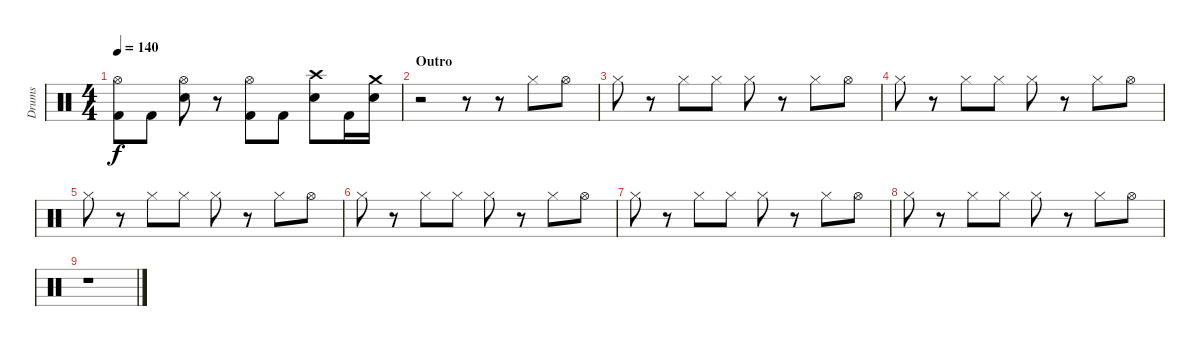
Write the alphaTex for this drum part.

\track ("Drums" "Drums") {instrument percussion}
\staff {score}
\articulation defaults
\ts (4 4)
\tempo 140
\clef neutral
\ks c
("Hi-Hat (open)" "Kick (hit) 2").8{dy f} "Kick (hit) 2".8 ("Hi-Hat (open)" "Electric Snare (hit)").8 r.8 ("Hi-Hat (open)" "Kick (hit) 2").8 "Kick (hit) 2".8 ("Crash high (hit)" "Electric Snare (hit)").8 "Kick (hit) 2".16 ("Crash medium (hit)" "Electric Snare (hit)").16 |
\section ("" "Outro")
r.2 r.8 r.8 "Hi-Hat (closed)".8 "Hi-Hat (open)".8 |
"Hi-Hat (closed)".8 r.8 "Hi-Hat (closed)".8 "Hi-Hat (closed)".8 "Hi-Hat (closed)".8 r.8 "Hi-Hat (closed)".8 "Hi-Hat (open)".8 |
"Hi-Hat (closed)".8 r.8 "Hi-Hat (closed)".8 "Hi-Hat (closed)".8 "Hi-Hat (closed)".8 r.8 "Hi-Hat (closed)".8 "Hi-Hat (open)".8 |
"Hi-Hat (closed)".8 r.8 "Hi-Hat (closed)".8 "Hi-Hat (closed)".8 "Hi-Hat (closed)".8 r.8 "Hi-Hat (closed)".8 "Hi-Hat (open)".8 |
"Hi-Hat (closed)".8 r.8 "Hi-Hat (closed)".8 "Hi-Hat (closed)".8 "Hi-Hat (closed)".8 r.8 "Hi-Hat (closed)".8 "Hi-Hat (open)".8 |
"Hi-Hat (closed)".8 r.8 "Hi-Hat (closed)".8 "Hi-Hat (closed)".8 "Hi-Hat (closed)".8 r.8 "Hi-Hat (closed)".8 "Hi-Hat (open)".8 |
"Hi-Hat (closed)".8 r.8 "Hi-Hat (closed)".8 "Hi-Hat (closed)".8 "Hi-Hat (closed)".8 r.8 "Hi-Hat (closed)".8 "Hi-Hat (open)".8 |
r.1
